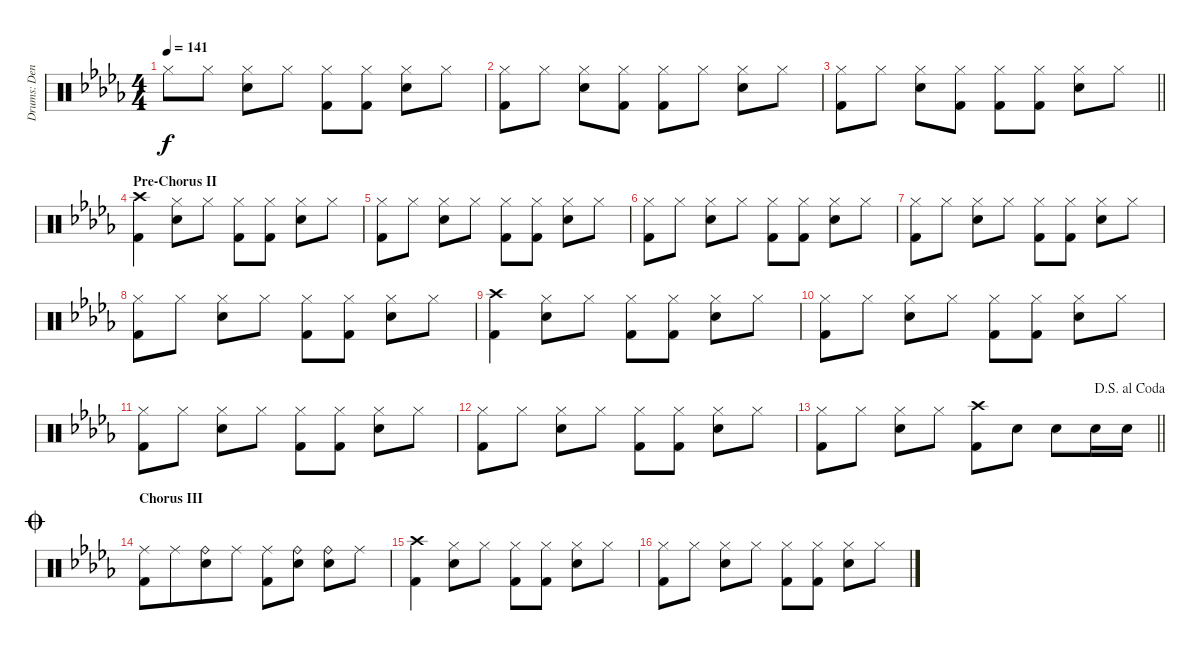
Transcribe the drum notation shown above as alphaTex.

\track ("Drums: Denny" "Drums: Den") {instrument percussion}
\staff {score}
\articulation defaults
\ts (4 4)
\tempo 141
\clef neutral
\ks db "Hi-Hat (closed)".8{dy f} "Hi-Hat (closed)".8
("Hi-Hat (closed)" "Snare (hit) 2").8 "Hi-Hat (closed)".8 ("Hi-Hat (closed)" "Kick (hit) 2").8 ("Hi-Hat (closed)" "Kick (hit) 2").8 ("Hi-Hat (closed)" "Snare (hit) 2").8 "Hi-Hat (closed)".8 |
("Hi-Hat (closed)" "Kick (hit) 2").8 "Hi-Hat (closed)".8 ("Hi-Hat (closed)" "Snare (hit) 2").8 ("Hi-Hat (closed)" "Kick (hit) 2").8 ("Hi-Hat (closed)" "Kick (hit) 2").8 "Hi-Hat (closed)".8 ("Hi-Hat (closed)" "Snare (hit) 2").8 "Hi-Hat (closed)".8 |
\barLineRight lightlight
("Hi-Hat (closed)" "Kick (hit) 2").8 "Hi-Hat (closed)".8 ("Hi-Hat (closed)" "Snare (hit) 2").8 ("Hi-Hat (closed)" "Kick (hit) 2").8 ("Hi-Hat (closed)" "Kick (hit) 2").8 ("Hi-Hat (closed)" "Kick (hit) 2").8 ("Hi-Hat (closed)" "Snare (hit) 2").8 "Hi-Hat (closed)".8 |
\section ("" "Pre-Chorus II")
("Crash high (hit)" "Kick (hit) 2").4 ("Hi-Hat (closed)" "Snare (hit) 2").8 "Hi-Hat (closed)".8 ("Hi-Hat (closed)" "Kick (hit) 2").8 ("Hi-Hat (closed)" "Kick (hit) 2").8 ("Hi-Hat (closed)" "Snare (hit) 2").8 "Hi-Hat (closed)".8 |
("Hi-Hat (closed)" "Kick (hit) 2").8 "Hi-Hat (closed)".8 ("Hi-Hat (closed)" "Snare (hit) 2").8 "Hi-Hat (closed)".8 ("Hi-Hat (closed)" "Kick (hit) 2").8 ("Hi-Hat (closed)" "Kick (hit) 2").8 ("Hi-Hat (closed)" "Snare (hit) 2").8 "Hi-Hat (closed)".8 |
("Hi-Hat (closed)" "Kick (hit) 2").8 "Hi-Hat (closed)".8 ("Hi-Hat (closed)" "Snare (hit) 2").8 "Hi-Hat (closed)".8 ("Hi-Hat (closed)" "Kick (hit) 2").8 ("Hi-Hat (closed)" "Kick (hit) 2").8 ("Hi-Hat (closed)" "Snare (hit) 2").8 "Hi-Hat (closed)".8 |
("Hi-Hat (closed)" "Kick (hit) 2").8 "Hi-Hat (closed)".8 ("Hi-Hat (closed)" "Snare (hit) 2").8 "Hi-Hat (closed)".8 ("Hi-Hat (closed)" "Kick (hit) 2").8 ("Hi-Hat (closed)" "Kick (hit) 2").8 ("Hi-Hat (closed)" "Snare (hit) 2").8 "Hi-Hat (closed)".8 |
("Hi-Hat (closed)" "Kick (hit) 2").8 "Hi-Hat (closed)".8 ("Hi-Hat (closed)" "Snare (hit) 2").8 "Hi-Hat (closed)".8 ("Hi-Hat (closed)" "Kick (hit) 2").8 ("Hi-Hat (closed)" "Kick (hit) 2").8 ("Hi-Hat (closed)" "Snare (hit) 2").8 "Hi-Hat (closed)".8 |
("Crash high (hit)" "Kick (hit) 2").4 ("Hi-Hat (closed)" "Snare (hit) 2").8 "Hi-Hat (closed)".8 ("Hi-Hat (closed)" "Kick (hit) 2").8 ("Hi-Hat (closed)" "Kick (hit) 2").8 ("Hi-Hat (closed)" "Snare (hit) 2").8 "Hi-Hat (closed)".8 |
("Hi-Hat (closed)" "Kick (hit) 2").8 "Hi-Hat (closed)".8 ("Hi-Hat (closed)" "Snare (hit) 2").8 "Hi-Hat (closed)".8 ("Hi-Hat (closed)" "Kick (hit) 2").8 ("Hi-Hat (closed)" "Kick (hit) 2").8 ("Hi-Hat (closed)" "Snare (hit) 2").8 "Hi-Hat (closed)".8 |
("Hi-Hat (closed)" "Kick (hit) 2").8 "Hi-Hat (closed)".8 ("Hi-Hat (closed)" "Snare (hit) 2").8 "Hi-Hat (closed)".8 ("Hi-Hat (closed)" "Kick (hit) 2").8 ("Hi-Hat (closed)" "Kick (hit) 2").8 ("Hi-Hat (closed)" "Snare (hit) 2").8 "Hi-Hat (closed)".8 |
("Hi-Hat (closed)" "Kick (hit) 2").8 "Hi-Hat (closed)".8 ("Hi-Hat (closed)" "Snare (hit) 2").8 "Hi-Hat (closed)".8 ("Hi-Hat (closed)" "Kick (hit) 2").8 ("Hi-Hat (closed)" "Kick (hit) 2").8 ("Hi-Hat (closed)" "Snare (hit) 2").8 "Hi-Hat (closed)".8 |
\jump dalsegnoalcoda
\barLineRight lightlight
("Hi-Hat (closed)" "Kick (hit) 2").8 "Hi-Hat (closed)".8 ("Hi-Hat (closed)" "Snare (hit) 2").8 "Hi-Hat (closed)".8 ("Crash high (hit)" "Kick (hit) 2").8 "Snare (hit) 2".8 "Snare (hit) 2".8 "Snare (hit) 2".16 "Snare (hit) 2".16 |
\section ("" "Chorus III")
\jump coda
("Ride (middle)" "Kick (hit) 2").8 "Ride (middle)".8{beam merge} ("Ride (bell)" "Snare (hit) 2").8 "Ride (middle)".8 ("Ride (middle)" "Kick (hit) 2").8 ("Ride (bell)" "Snare (hit) 2").8 ("Ride (bell)" "Snare (hit) 2").8 "Ride (middle)".8 |
("Crash high (hit)" "Kick (hit) 2").4 ("Hi-Hat (closed)" "Snare (hit) 2").8 "Hi-Hat (closed)".8 ("Hi-Hat (closed)" "Kick (hit) 2").8 ("Hi-Hat (closed)" "Kick (hit) 2").8 ("Hi-Hat (closed)" "Snare (hit) 2").8 "Hi-Hat (closed)".8 |
("Hi-Hat (closed)" "Kick (hit) 2").8 "Hi-Hat (closed)".8 ("Hi-Hat (closed)" "Snare (hit) 2").8 "Hi-Hat (closed)".8 ("Hi-Hat (closed)" "Kick (hit) 2").8 ("Hi-Hat (closed)" "Kick (hit) 2").8 ("Hi-Hat (closed)" "Snare (hit) 2").8 "Hi-Hat (closed)".8
